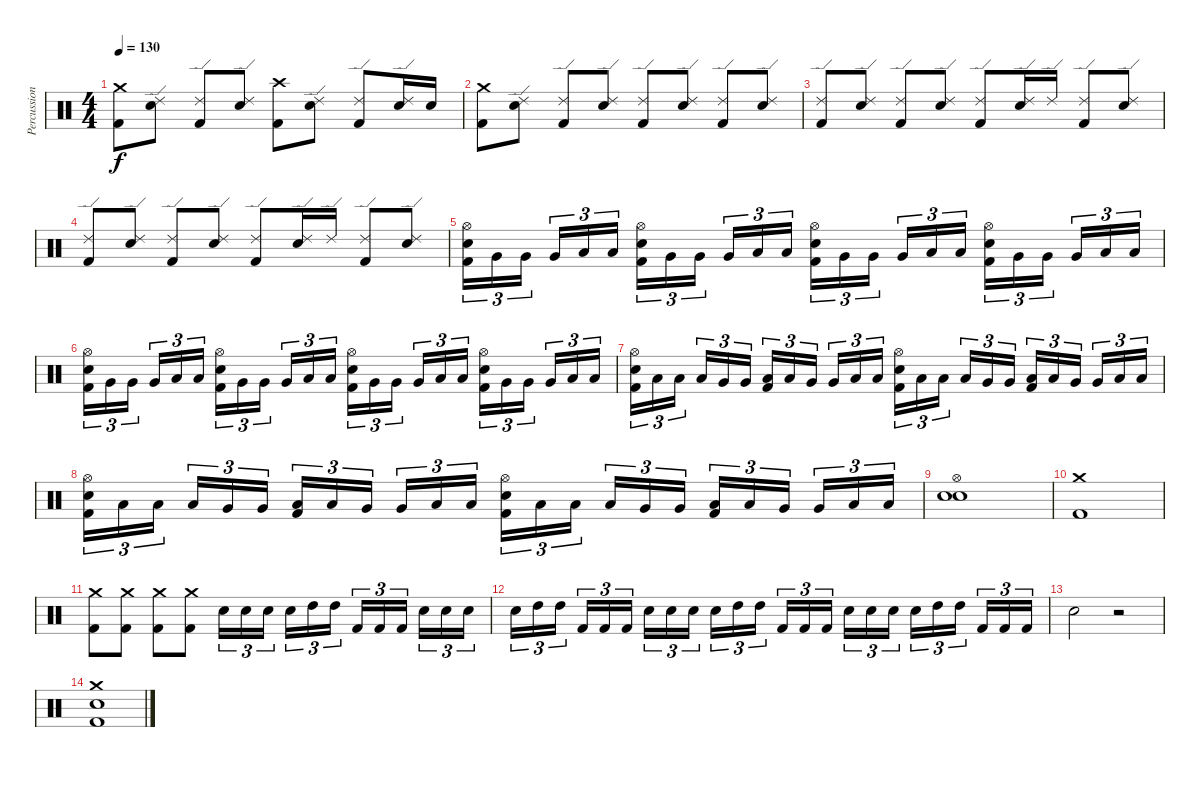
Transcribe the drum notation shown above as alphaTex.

\track ("Percussion" "Percussion") {instrument percussion}
\staff {score}
\articulation defaults
\ts (4 4)
\tempo 130
\clef neutral
\ks c
("Crash medium (hit)" "Kick (hit) 2").8{dy f} ("Ride (edge) 2" "Electric Snare (hit)").8 ("Ride (edge) 2" "Kick (hit) 2").8 ("Ride (edge) 2" "Electric Snare (hit)").8 ("Crash high (hit)" "Kick (hit) 2").8 ("Ride (edge) 2" "Electric Snare (hit)").8 ("Ride (edge) 2" "Kick (hit) 2").8 ("Ride (edge) 2" "Electric Snare (hit)").16 "Electric Snare (hit)".16 |
("Crash medium (hit)" "Kick (hit) 2").8 ("Ride (edge) 2" "Electric Snare (hit)").8 ("Ride (edge) 2" "Kick (hit) 2").8 ("Ride (edge) 2" "Electric Snare (hit)").8 ("Ride (edge) 2" "Kick (hit) 2").8 ("Ride (edge) 2" "Electric Snare (hit)").8 ("Ride (edge) 2" "Kick (hit) 2").8 ("Ride (edge) 2" "Electric Snare (hit)").8 |
("Ride (edge) 2" "Kick (hit) 2").8 ("Ride (edge) 2" "Electric Snare (hit)").8 ("Ride (edge) 2" "Kick (hit) 2").8 ("Ride (edge) 2" "Electric Snare (hit)").8 ("Ride (edge) 2" "Kick (hit) 2").8 ("Ride (edge) 2" "Electric Snare (hit)").16 "Ride (edge) 2".16 ("Ride (edge) 2" "Kick (hit) 2").8 ("Ride (edge) 2" "Electric Snare (hit)").8 |
("Ride (edge) 2" "Kick (hit) 2").8 ("Ride (edge) 2" "Electric Snare (hit)").8 ("Ride (edge) 2" "Kick (hit) 2").8 ("Ride (edge) 2" "Electric Snare (hit)").8 ("Ride (edge) 2" "Kick (hit) 2").8 ("Ride (edge) 2" "Electric Snare (hit)").16 "Ride (edge) 2".16 ("Ride (edge) 2" "Kick (hit) 2").8 ("Ride (edge) 2" "Electric Snare (hit)").8 |
("Hi-Hat (open)" "Electric Snare (hit)" "Kick (hit) 2").16{tu (3 2)} "Very Low Tom (hit)".16{tu (3 2)} "Very Low Tom (hit)".16{tu (3 2)} "Very Low Tom (hit)".16{tu (3 2)} "Low Floor Tom (hit)".16{tu (3 2)} "Low Floor Tom (hit)".16{tu (3 2)} ("Hi-Hat (open)" "Electric Snare (hit)" "Kick (hit) 2").16{tu (3 2)} "Very Low Tom (hit)".16{tu (3 2)} "Very Low Tom (hit)".16{tu (3 2)} "Very Low Tom (hit)".16{tu (3 2)} "Low Floor Tom (hit)".16{tu (3 2)} "Low Floor Tom (hit)".16{tu (3 2)} ("Hi-Hat (open)" "Electric Snare (hit)" "Kick (hit) 2").16{tu (3 2)} "Very Low Tom (hit)".16{tu (3 2)} "Very Low Tom (hit)".16{tu (3 2)} "Very Low Tom (hit)".16{tu (3 2)} "Low Floor Tom (hit)".16{tu (3 2)} "Low Floor Tom (hit)".16{tu (3 2)} ("Hi-Hat (open)" "Electric Snare (hit)" "Kick (hit) 2").16{tu (3 2)} "Very Low Tom (hit)".16{tu (3 2)} "Very Low Tom (hit)".16{tu (3 2)} "Very Low Tom (hit)".16{tu (3 2)} "Low Floor Tom (hit)".16{tu (3 2)} "Low Floor Tom (hit)".16{tu (3 2)} |
("Hi-Hat (open)" "Electric Snare (hit)" "Kick (hit) 2").16{tu (3 2)} "Very Low Tom (hit)".16{tu (3 2)} "Very Low Tom (hit)".16{tu (3 2)} "Very Low Tom (hit)".16{tu (3 2)} "Low Floor Tom (hit)".16{tu (3 2)} "Low Floor Tom (hit)".16{tu (3 2)} ("Hi-Hat (open)" "Electric Snare (hit)" "Kick (hit) 2").16{tu (3 2)} "Very Low Tom (hit)".16{tu (3 2)} "Very Low Tom (hit)".16{tu (3 2)} "Very Low Tom (hit)".16{tu (3 2)} "Low Floor Tom (hit)".16{tu (3 2)} "Low Floor Tom (hit)".16{tu (3 2)} ("Hi-Hat (open)" "Electric Snare (hit)" "Kick (hit) 2").16{tu (3 2)} "Very Low Tom (hit)".16{tu (3 2)} "Very Low Tom (hit)".16{tu (3 2)} "Very Low Tom (hit)".16{tu (3 2)} "Low Floor Tom (hit)".16{tu (3 2)} "Low Floor Tom (hit)".16{tu (3 2)} ("Hi-Hat (open)" "Electric Snare (hit)" "Kick (hit) 2").16{tu (3 2)} "Very Low Tom (hit)".16{tu (3 2)} "Very Low Tom (hit)".16{tu (3 2)} "Very Low Tom (hit)".16{tu (3 2)} "Low Floor Tom (hit)".16{tu (3 2)} "Low Floor Tom (hit)".16{tu (3 2)} |
("Hi-Hat (open)" "Electric Snare (hit)" "Kick (hit) 2").16{tu (3 2)} "Low Floor Tom (hit)".16{tu (3 2)} "Low Floor Tom (hit)".16{tu (3 2)} "Low Floor Tom (hit)".16{tu (3 2)} "Very Low Tom (hit)".16{tu (3 2)} "Very Low Tom (hit)".16{tu (3 2)} ("Low Tom (hit)" "Kick (hit) 2").16{tu (3 2)} "Low Tom (hit)".16{tu (3 2)} "Very Low Tom (hit)".16{tu (3 2)} "Very Low Tom (hit)".16{tu (3 2)} "Low Floor Tom (hit)".16{tu (3 2)} "Low Floor Tom (hit)".16{tu (3 2)} ("Hi-Hat (open)" "Electric Snare (hit)" "Kick (hit) 2").16{tu (3 2)} "Low Floor Tom (hit)".16{tu (3 2)} "Low Floor Tom (hit)".16{tu (3 2)} "Low Floor Tom (hit)".16{tu (3 2)} "Very Low Tom (hit)".16{tu (3 2)} "Very Low Tom (hit)".16{tu (3 2)} ("Low Tom (hit)" "Kick (hit) 2").16{tu (3 2)} "Low Tom (hit)".16{tu (3 2)} "Very Low Tom (hit)".16{tu (3 2)} "Very Low Tom (hit)".16{tu (3 2)} "Low Floor Tom (hit)".16{tu (3 2)} "Low Floor Tom (hit)".16{tu (3 2)} |
("Hi-Hat (open)" "Electric Snare (hit)" "Kick (hit) 2").16{tu (3 2)} "Low Floor Tom (hit)".16{tu (3 2)} "Low Floor Tom (hit)".16{tu (3 2)} "Low Floor Tom (hit)".16{tu (3 2)} "Very Low Tom (hit)".16{tu (3 2)} "Very Low Tom (hit)".16{tu (3 2)} ("Low Tom (hit)" "Kick (hit) 2").16{tu (3 2)} "Low Tom (hit)".16{tu (3 2)} "Very Low Tom (hit)".16{tu (3 2)} "Very Low Tom (hit)".16{tu (3 2)} "Low Floor Tom (hit)".16{tu (3 2)} "Low Floor Tom (hit)".16{tu (3 2)} ("Hi-Hat (open)" "Electric Snare (hit)" "Kick (hit) 2").16{tu (3 2)} "Low Floor Tom (hit)".16{tu (3 2)} "Low Floor Tom (hit)".16{tu (3 2)} "Low Floor Tom (hit)".16{tu (3 2)} "Very Low Tom (hit)".16{tu (3 2)} "Very Low Tom (hit)".16{tu (3 2)} ("Low Tom (hit)" "Kick (hit) 2").16{tu (3 2)} "Low Tom (hit)".16{tu (3 2)} "Very Low Tom (hit)".16{tu (3 2)} "Very Low Tom (hit)".16{tu (3 2)} "Low Floor Tom (hit)".16{tu (3 2)} "Low Floor Tom (hit)".16{tu (3 2)} |
("Hi-Hat (open)" "Electric Snare (hit)" "Electric Snare (hit)").1 |
("Crash medium (hit)" "Kick (hit) 2").1 |
("Crash medium (hit)" "Kick (hit) 2").8 ("Crash medium (hit)" "Kick (hit) 2").8 ("Crash medium (hit)" "Kick (hit) 2").8 ("Crash medium (hit)" "Kick (hit) 2").8 "Electric Snare (hit)".16{tu (3 2)} "Electric Snare (hit)".16{tu (3 2)} "Electric Snare (hit)".16{tu (3 2)} "Electric Snare (hit)".16{tu (3 2)} "High Tom (hit)".16{tu (3 2)} "High Tom (hit)".16{tu (3 2)} "Kick (hit) 2".16{tu (3 2)} "Kick (hit) 2".16{tu (3 2)} "Kick (hit) 2".16{tu (3 2)} "Electric Snare (hit)".16{tu (3 2)} "Electric Snare (hit)".16{tu (3 2)} "Electric Snare (hit)".16{tu (3 2)} |
"Electric Snare (hit)".16{tu (3 2)} "High Tom (hit)".16{tu (3 2)} "High Tom (hit)".16{tu (3 2)} "Kick (hit) 2".16{tu (3 2)} "Kick (hit) 2".16{tu (3 2)} "Kick (hit) 2".16{tu (3 2)} "Electric Snare (hit)".16{tu (3 2)} "Electric Snare (hit)".16{tu (3 2)} "Electric Snare (hit)".16{tu (3 2)} "Electric Snare (hit)".16{tu (3 2)} "High Tom (hit)".16{tu (3 2)} "High Tom (hit)".16{tu (3 2)} "Kick (hit) 2".16{tu (3 2)} "Kick (hit) 2".16{tu (3 2)} "Kick (hit) 2".16{tu (3 2)} "Electric Snare (hit)".16{tu (3 2)} "Electric Snare (hit)".16{tu (3 2)} "Electric Snare (hit)".16{tu (3 2)} "Electric Snare (hit)".16{tu (3 2)} "High Tom (hit)".16{tu (3 2)} "High Tom (hit)".16{tu (3 2)} "Kick (hit) 2".16{tu (3 2)} "Kick (hit) 2".16{tu (3 2)} "Kick (hit) 2".16{tu (3 2)} |
"Electric Snare (hit)".2 r.2 |
("Crash medium (hit)" "Electric Snare (hit)" "Kick (hit) 2").1
